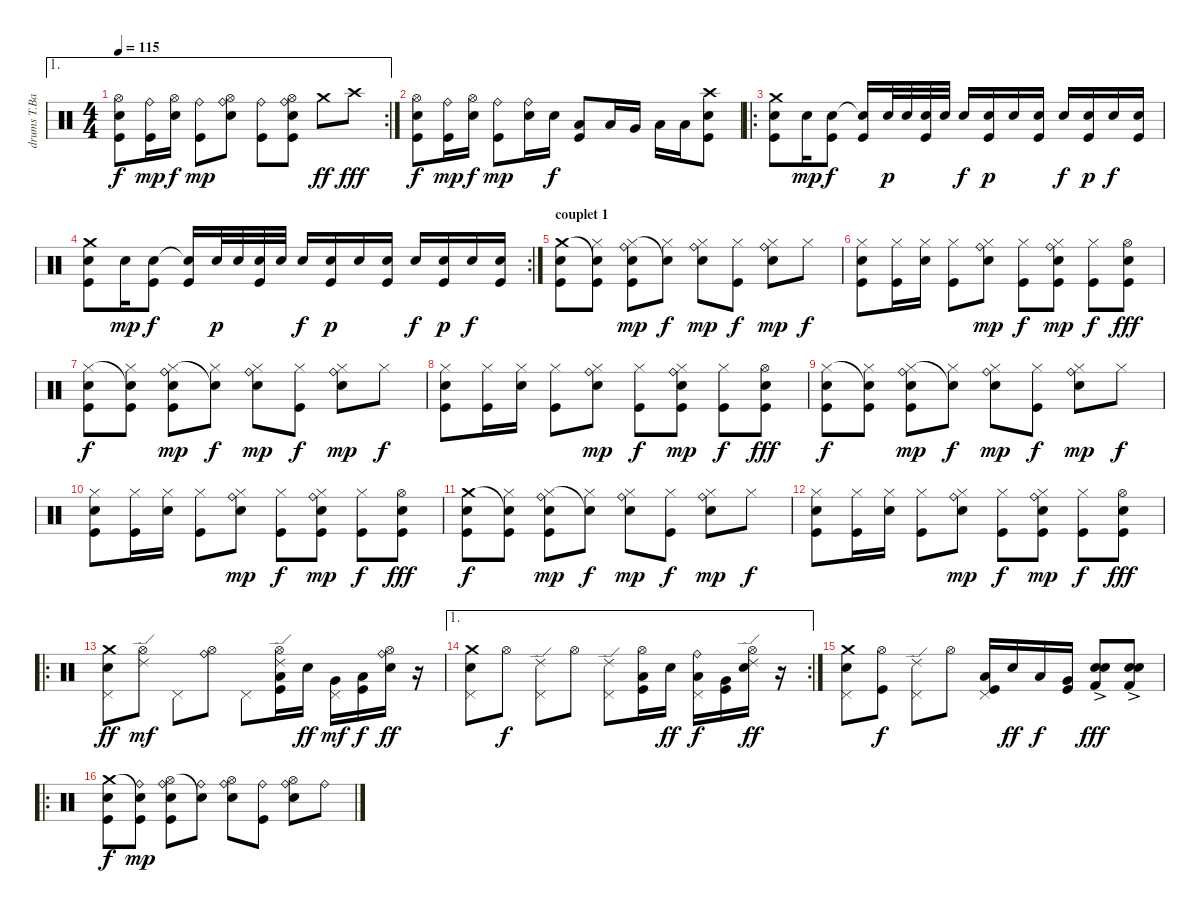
\track ("drums T.Barker" "drums T.Ba") {instrument percussion}
\staff {score}
\articulation defaults
\ae 1
\rc 2
\ts (4 4)
\tempo 115
\clef neutral
\ks c
("Hi-Hat (open)" "Electric Snare (hit)" "Kick (hit)").8{dy f} ("Ride (bell)" "Kick (hit)").16{dy mp} ("Hi-Hat (open)" "Electric Snare (hit)").16{dy f} ("Ride (bell)" "Kick (hit)").8{dy mp} ("Hi-Hat (open)" "Ride (bell)" "Electric Snare (hit)").8 ("Ride (bell)" "Kick (hit)").8 ("Hi-Hat (open)" "Ride (bell)" "Electric Snare (hit)" "Kick (hit)").8 "Crash medium (hit)".8{dy ff} "Crash high (hit)".8{dy fff} |
("Hi-Hat (open)" "Electric Snare (hit)" "Kick (hit)").8{dy f} ("Ride (bell)" "Kick (hit)").16{dy mp} ("Hi-Hat (open)" "Electric Snare (hit)").16{dy f} ("Ride (bell)" "Kick (hit)").8{dy mp} ("Ride (bell)" "Electric Snare (hit)").16 "Electric Snare (hit)".16{dy f} ("Low Tom (hit)" "Kick (hit)").8 "Low Tom (hit)".16 "Very Low Tom (hit)".16 "Low Floor Tom (hit)".16 "Low Floor Tom (hit)".16 ("Crash high (hit)" "Electric Snare (hit)" "Kick (hit)").8 |
\ro
("Crash medium (hit)" "Electric Snare (hit)" "Kick (hit)").8 "Electric Snare (hit)".16{dy mp} ("Electric Snare (hit)" "Kick (hit)").8{dy f} ("Electric Snare (hit)"{t} "Kick (hit)").16 "Electric Snare (hit)".32{dy p} "Electric Snare (hit)".32 ("Electric Snare (hit)" "Kick (hit)").32 "Electric Snare (hit)".32 "Electric Snare (hit)".16{dy f} ("Electric Snare (hit)" "Kick (hit)").16{dy p} "Electric Snare (hit)".16 ("Electric Snare (hit)" "Kick (hit)").16 "Electric Snare (hit)".16{dy f} ("Electric Snare (hit)" "Kick (hit)").16{dy p} "Electric Snare (hit)".16{dy f} ("Electric Snare (hit)" "Kick (hit)").16 |
\rc 2
("Crash medium (hit)" "Electric Snare (hit)" "Kick (hit)").8 "Electric Snare (hit)".16{dy mp} ("Electric Snare (hit)" "Kick (hit)").8{dy f} ("Electric Snare (hit)"{t} "Kick (hit)").16 "Electric Snare (hit)".32{dy p} "Electric Snare (hit)".32 ("Electric Snare (hit)" "Kick (hit)").32 "Electric Snare (hit)".32 "Electric Snare (hit)".16{dy f} ("Electric Snare (hit)" "Kick (hit)").16{dy p} "Electric Snare (hit)".16 ("Electric Snare (hit)" "Kick (hit)").16 "Electric Snare (hit)".16{dy f} ("Electric Snare (hit)" "Kick (hit)").16{dy p} "Electric Snare (hit)".16{dy f} ("Electric Snare (hit)" "Kick (hit)").16 |
\section ("" "couplet 1")
("Crash medium (hit)" "Electric Snare (hit)" "Kick (hit)").8 ("Snare (hit)"{t} "Hi-Hat (closed)" "Kick (hit)").8 ("Hi-Hat (closed)" "Ride (bell)" "Electric Snare (hit)" "Kick (hit)").8{dy mp} ("Snare (hit)"{t} "Hi-Hat (closed)").8{dy f} ("Hi-Hat (closed)" "Ride (bell)" "Electric Snare (hit)").8{dy mp} ("Hi-Hat (closed)" "Kick (hit)").8{dy f} ("Hi-Hat (closed)" "Ride (bell)" "Electric Snare (hit)").8{dy mp} "Hi-Hat (closed)".8{dy f} |
("Hi-Hat (closed)" "Electric Snare (hit)" "Kick (hit)").8 ("Hi-Hat (closed)" "Kick (hit)").16 ("Hi-Hat (closed)" "Electric Snare (hit)").16 ("Hi-Hat (closed)" "Kick (hit)").8 ("Hi-Hat (closed)" "Ride (bell)" "Electric Snare (hit)").8{dy mp} ("Hi-Hat (closed)" "Kick (hit)").8{dy f} ("Hi-Hat (closed)" "Ride (bell)" "Electric Snare (hit)" "Kick (hit)").8{dy mp} ("Hi-Hat (closed)" "Kick (hit)").8{dy f} ("Hi-Hat (open)" "Electric Snare (hit)" "Kick (hit)").8{dy fff} |
("Hi-Hat (closed)" "Electric Snare (hit)" "Kick (hit)").8{dy f} ("Snare (hit)"{t} "Hi-Hat (closed)" "Kick (hit)").8 ("Hi-Hat (closed)" "Ride (bell)" "Electric Snare (hit)" "Kick (hit)").8{dy mp} ("Snare (hit)"{t} "Hi-Hat (closed)").8{dy f} ("Hi-Hat (closed)" "Ride (bell)" "Electric Snare (hit)").8{dy mp} ("Hi-Hat (closed)" "Kick (hit)").8{dy f} ("Hi-Hat (closed)" "Ride (bell)" "Electric Snare (hit)").8{dy mp} "Hi-Hat (closed)".8{dy f} |
("Hi-Hat (closed)" "Electric Snare (hit)" "Kick (hit)").8 ("Hi-Hat (closed)" "Kick (hit)").16 ("Hi-Hat (closed)" "Electric Snare (hit)").16 ("Hi-Hat (closed)" "Kick (hit)").8 ("Hi-Hat (closed)" "Ride (bell)" "Electric Snare (hit)").8{dy mp} ("Hi-Hat (closed)" "Kick (hit)").8{dy f} ("Hi-Hat (closed)" "Ride (bell)" "Electric Snare (hit)" "Kick (hit)").8{dy mp} ("Hi-Hat (closed)" "Kick (hit)").8{dy f} ("Hi-Hat (open)" "Electric Snare (hit)" "Kick (hit)").8{dy fff} |
("Hi-Hat (closed)" "Electric Snare (hit)" "Kick (hit)").8{dy f} ("Snare (hit)"{t} "Hi-Hat (closed)" "Kick (hit)").8 ("Hi-Hat (closed)" "Ride (bell)" "Electric Snare (hit)" "Kick (hit)").8{dy mp} ("Snare (hit)"{t} "Hi-Hat (closed)").8{dy f} ("Hi-Hat (closed)" "Ride (bell)" "Electric Snare (hit)").8{dy mp} ("Hi-Hat (closed)" "Kick (hit)").8{dy f} ("Hi-Hat (closed)" "Ride (bell)" "Electric Snare (hit)").8{dy mp} "Hi-Hat (closed)".8{dy f} |
("Hi-Hat (closed)" "Electric Snare (hit)" "Kick (hit)").8 ("Hi-Hat (closed)" "Kick (hit)").16 ("Hi-Hat (closed)" "Electric Snare (hit)").16 ("Hi-Hat (closed)" "Kick (hit)").8 ("Hi-Hat (closed)" "Ride (bell)" "Electric Snare (hit)").8{dy mp} ("Hi-Hat (closed)" "Kick (hit)").8{dy f} ("Hi-Hat (closed)" "Ride (bell)" "Electric Snare (hit)" "Kick (hit)").8{dy mp} ("Hi-Hat (closed)" "Kick (hit)").8{dy f} ("Hi-Hat (open)" "Electric Snare (hit)" "Kick (hit)").8{dy fff} |
("Crash medium (hit)" "Electric Snare (hit)" "Kick (hit)").8{dy f} ("Snare (hit)"{t} "Hi-Hat (closed)" "Kick (hit)").8 ("Hi-Hat (closed)" "Ride (bell)" "Electric Snare (hit)" "Kick (hit)").8{dy mp} ("Snare (hit)"{t} "Hi-Hat (closed)").8{dy f} ("Hi-Hat (closed)" "Ride (bell)" "Electric Snare (hit)").8{dy mp} ("Hi-Hat (closed)" "Kick (hit)").8{dy f} ("Hi-Hat (closed)" "Ride (bell)" "Electric Snare (hit)").8{dy mp} "Hi-Hat (closed)".8{dy f} |
("Hi-Hat (closed)" "Electric Snare (hit)" "Kick (hit)").8 ("Hi-Hat (closed)" "Kick (hit)").16 ("Hi-Hat (closed)" "Electric Snare (hit)").16 ("Hi-Hat (closed)" "Kick (hit)").8 ("Hi-Hat (closed)" "Ride (bell)" "Electric Snare (hit)").8{dy mp} ("Hi-Hat (closed)" "Kick (hit)").8{dy f} ("Hi-Hat (closed)" "Ride (bell)" "Electric Snare (hit)" "Kick (hit)").8{dy mp} ("Hi-Hat (closed)" "Kick (hit)").8{dy f} ("Hi-Hat (open)" "Electric Snare (hit)" "Kick (hit)").8{dy fff} |
\ro
("Crash medium (hit)" "Pedal Hi-Hat (hit)" "Electric Snare (hit)").8{dy ff} ("Ride (edge) 2" "Hi-Hat (open)").8{dy mf} "Pedal Hi-Hat (hit)".8 ("Ride (bell)" "Hi-Hat (open)").8 "Pedal Hi-Hat (hit)".8 ("Ride (edge) 2" "Hi-Hat (open)" "Low Tom (hit)" "Kick (hit)").16 "Electric Snare (hit)".16{dy ff} ("Pedal Hi-Hat (hit)" "Very Low Tom (hit)").16{dy mf} ("Low Tom (hit)" "Kick (hit)").16{dy f} ("Ride (bell)" "Hi-Hat (open)" "Electric Snare (hit)").16{dy ff} r.16 |
\ae 1
\rc 2
("Crash medium (hit)" "Pedal Hi-Hat (hit)" "Electric Snare (hit)").8 "Hi-Hat (open)".8{dy f} ("Ride (edge) 2" "Pedal Hi-Hat (hit)").8 "Hi-Hat (open)".8 ("Ride (edge) 2" "Pedal Hi-Hat (hit)").8 ("Hi-Hat (open)" "Low Tom (hit)" "Kick (hit)").16 "Electric Snare (hit)".16{dy ff} ("Ride (bell)" "Pedal Hi-Hat (hit)" "Low Tom (hit)").16{dy f} ("Very Low Tom (hit)" "Kick (hit)").16 ("Ride (edge) 2" "Hi-Hat (open)" "Electric Snare (hit)").16{dy ff} r.16 |
("Crash medium (hit)" "Pedal Hi-Hat (hit)" "Electric Snare (hit)").8 ("Hi-Hat (open)" "Kick (hit)").8{dy f} ("Ride (edge) 2" "Pedal Hi-Hat (hit)").8 "Hi-Hat (open)".8 ("Pedal Hi-Hat (hit)" "Low Tom (hit)" "Kick (hit)").16 "Electric Snare (hit)".16{dy ff} "Low Tom (hit)".16{dy f} ("Very Low Tom (hit)" "Kick (hit)").16 ("Electric Snare (hit)" "Electric Snare (hit)"{ac} "Kick (hit) 2"{ac}).8{dy fff} ("Electric Snare (hit)" "Electric Snare (hit)"{ac} "Kick (hit) 2"{ac}).8 |
\ro
\section ("" "")
("Crash medium (hit)" "Electric Snare (hit)" "Kick (hit)").8{dy f} ("Snare (hit)"{t} "Ride (bell)" "Kick (hit)").8{dy mp} ("Hi-Hat (open)" "Ride (bell)" "Electric Snare (hit)" "Kick (hit)").8 ("Snare (hit)"{t} "Ride (bell)").8 ("Hi-Hat (open)" "Ride (bell)" "Electric Snare (hit)").8 ("Ride (bell)" "Kick (hit)").8 ("Hi-Hat (open)" "Ride (bell)" "Electric Snare (hit)").8 "Ride (bell)".8
